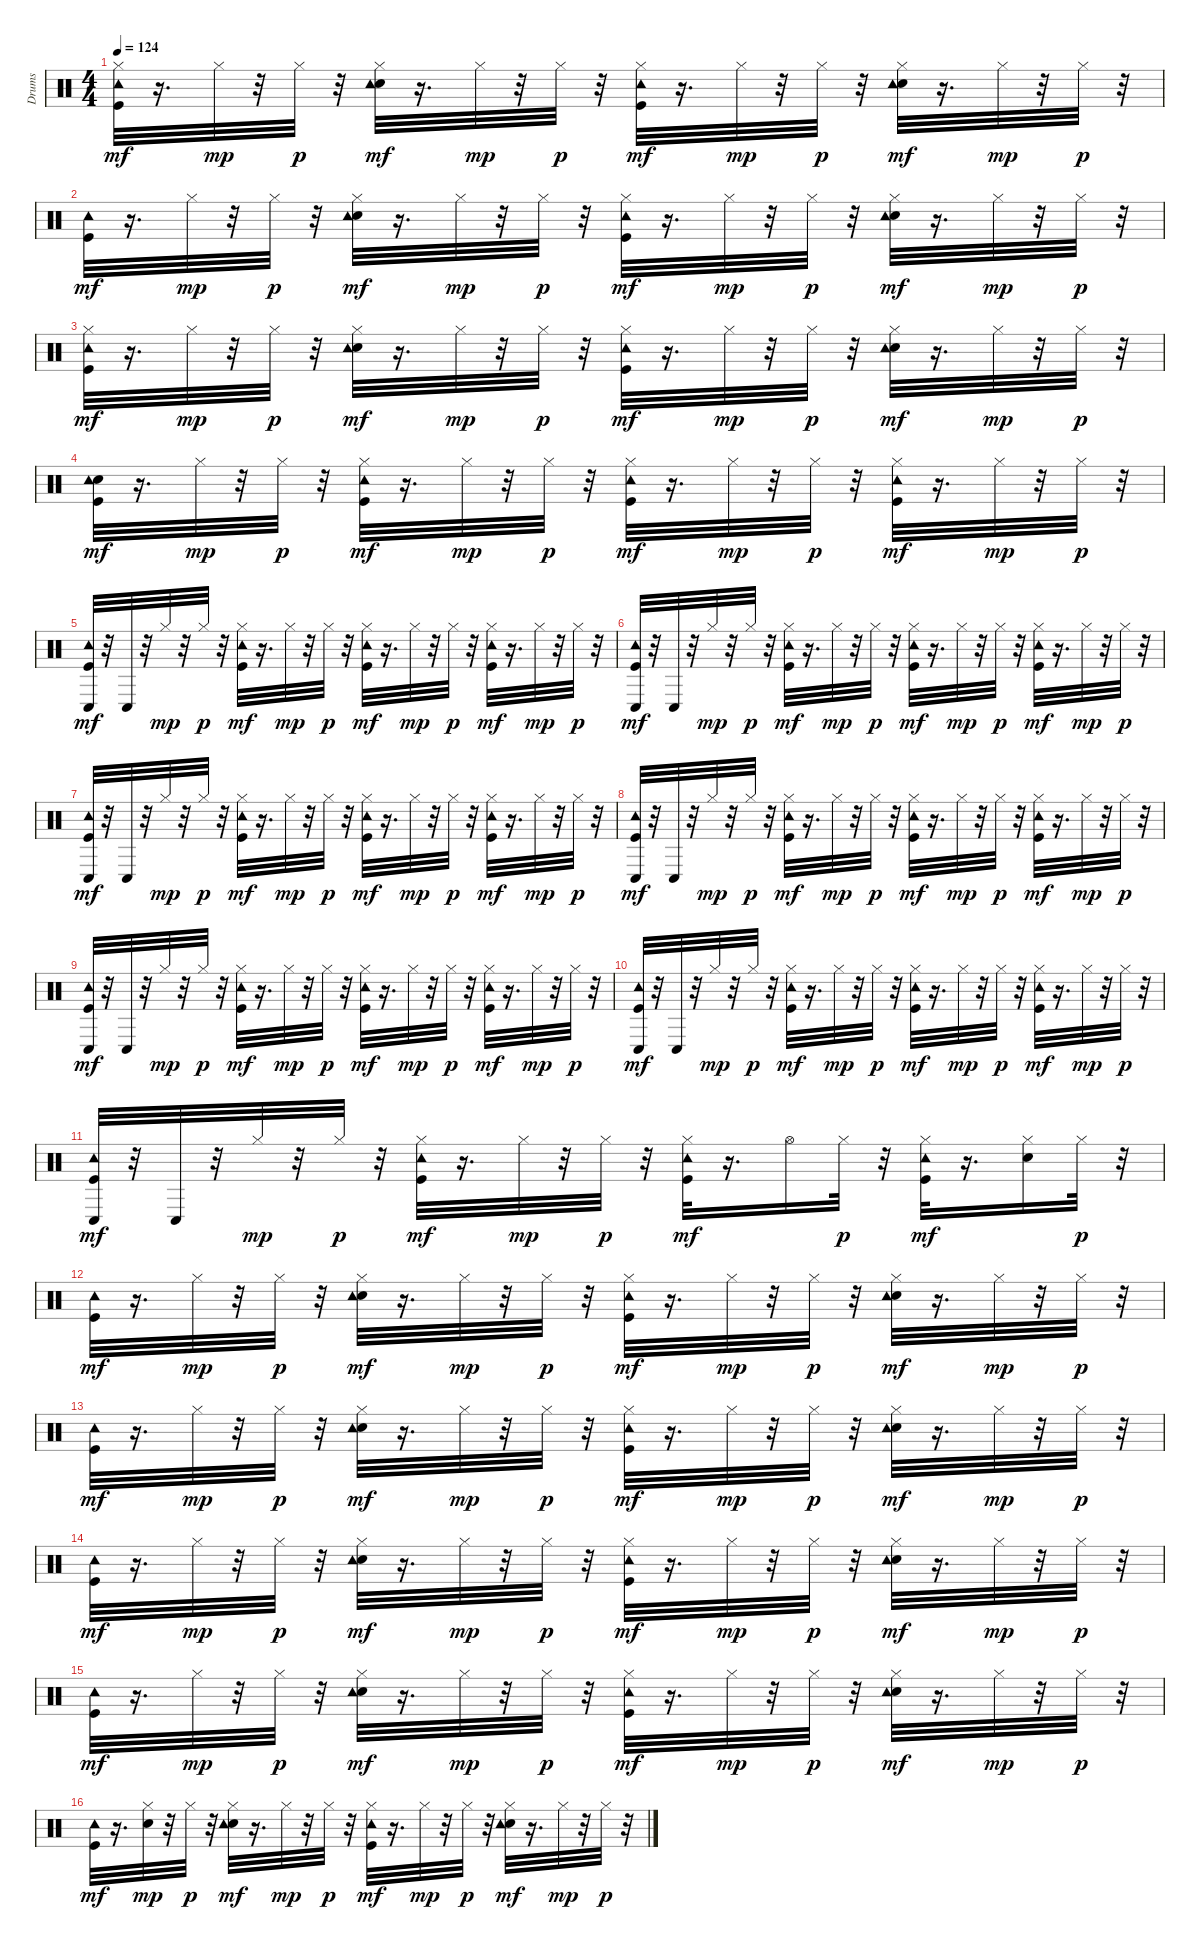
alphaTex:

\track ("Drums" "Drums") {instrument percussion}
\staff {score}
\articulation defaults
\ts (4 4)
\tempo 124
\clef neutral
\ks c
("Hi-Hat (closed)" "Tambourine (hit)" "Kick (hit)").32{dy mf} r.16{d} "Hi-Hat (closed)".32{dy mp} r.32 "Hi-Hat (closed)".32{dy p} r.32 ("Snare (hit) 2" "Tambourine (hit)" "Hi-Hat (closed)").32{dy mf} r.16{d} "Hi-Hat (closed)".32{dy mp} r.32 "Hi-Hat (closed)".32{dy p} r.32 ("Kick (hit)" "Tambourine (hit)" "Hi-Hat (closed)").32{dy mf} r.16{d} "Hi-Hat (closed)".32{dy mp} r.32 "Hi-Hat (closed)".32{dy p} r.32 ("Snare (hit) 2" "Tambourine (hit)" "Hi-Hat (closed)").32{dy mf} r.16{d} "Hi-Hat (closed)".32{dy mp} r.32 "Hi-Hat (closed)".32{dy p} r.32 |
("Tambourine (hit)" "Kick (hit)").32{dy mf} r.16{d} "Hi-Hat (closed)".32{dy mp} r.32 "Hi-Hat (closed)".32{dy p} r.32 ("Hi-Hat (closed)" "Snare (hit) 2" "Tambourine (hit)").32{dy mf} r.16{d} "Hi-Hat (closed)".32{dy mp} r.32 "Hi-Hat (closed)".32{dy p} r.32 ("Kick (hit)" "Tambourine (hit)" "Hi-Hat (closed)").32{dy mf} r.16{d} "Hi-Hat (closed)".32{dy mp} r.32 "Hi-Hat (closed)".32{dy p} r.32 ("Snare (hit) 2" "Tambourine (hit)" "Hi-Hat (closed)").32{dy mf} r.16{d} "Hi-Hat (closed)".32{dy mp} r.32 "Hi-Hat (closed)".32{dy p} r.32 |
("Hi-Hat (closed)" "Tambourine (hit)" "Kick (hit)").32{dy mf} r.16{d} "Hi-Hat (closed)".32{dy mp} r.32 "Hi-Hat (closed)".32{dy p} r.32 ("Snare (hit) 2" "Tambourine (hit)" "Hi-Hat (closed)").32{dy mf} r.16{d} "Hi-Hat (closed)".32{dy mp} r.32 "Hi-Hat (closed)".32{dy p} r.32 ("Kick (hit)" "Tambourine (hit)" "Hi-Hat (closed)").32{dy mf} r.16{d} "Hi-Hat (closed)".32{dy mp} r.32 "Hi-Hat (closed)".32{dy p} r.32 ("Snare (hit) 2" "Tambourine (hit)" "Hi-Hat (closed)").32{dy mf} r.16{d} "Hi-Hat (closed)".32{dy mp} r.32 "Hi-Hat (closed)".32{dy p} r.32 |
("Snare (hit) 2" "Tambourine (hit)" "Kick (hit)").32{dy mf} r.16{d} "Hi-Hat (closed)".32{dy mp} r.32 "Hi-Hat (closed)".32{dy p} r.32 ("Hi-Hat (closed)" "Kick (hit)" "Tambourine (hit)").32{dy mf} r.16{d} "Hi-Hat (closed)".32{dy mp} r.32 "Hi-Hat (closed)".32{dy p} r.32 ("Kick (hit)" "Tambourine (hit)" "Hi-Hat (closed)").32{dy mf} r.16{d} "Hi-Hat (closed)".32{dy mp} r.32 "Hi-Hat (closed)".32{dy p} r.32 ("Kick (hit)" "Tambourine (hit)" "Hi-Hat (closed)").32{dy mf} r.16{d} "Hi-Hat (closed)".32{dy mp} r.32 "Hi-Hat (closed)".32{dy p} r.32 |
("Conga low (hit)" "Kick (hit)" "Tambourine (hit)").32{dy mf} r.32 "Conga low (hit)".32 r.32 "Hi-Hat (closed)".32{dy mp} r.32 "Hi-Hat (closed)".32{dy p} r.32 ("Kick (hit)" "Tambourine (hit)" "Hi-Hat (closed)").32{dy mf} r.16{d} "Hi-Hat (closed)".32{dy mp} r.32 "Hi-Hat (closed)".32{dy p} r.32 ("Kick (hit)" "Tambourine (hit)" "Hi-Hat (closed)").32{dy mf} r.16{d} "Hi-Hat (closed)".32{dy mp} r.32 "Hi-Hat (closed)".32{dy p} r.32 ("Tambourine (hit)" "Kick (hit)" "Hi-Hat (closed)").32{dy mf} r.16{d} "Hi-Hat (closed)".32{dy mp} r.32 "Hi-Hat (closed)".32{dy p} r.32 |
("Conga low (hit)" "Tambourine (hit)" "Kick (hit)").32{dy mf} r.32 "Conga low (hit)".32 r.32 "Hi-Hat (closed)".32{dy mp} r.32 "Hi-Hat (closed)".32{dy p} r.32 ("Hi-Hat (closed)" "Kick (hit)" "Tambourine (hit)").32{dy mf} r.16{d} "Hi-Hat (closed)".32{dy mp} r.32 "Hi-Hat (closed)".32{dy p} r.32 ("Kick (hit)" "Tambourine (hit)" "Hi-Hat (closed)").32{dy mf} r.16{d} "Hi-Hat (closed)".32{dy mp} r.32 "Hi-Hat (closed)".32{dy p} r.32 ("Kick (hit)" "Tambourine (hit)" "Hi-Hat (closed)").32{dy mf} r.16{d} "Hi-Hat (closed)".32{dy mp} r.32 "Hi-Hat (closed)".32{dy p} r.32 |
("Tambourine (hit)" "Conga low (hit)" "Kick (hit)").32{dy mf} r.32 "Conga low (hit)".32 r.32 "Hi-Hat (closed)".32{dy mp} r.32 "Hi-Hat (closed)".32{dy p} r.32 ("Kick (hit)" "Tambourine (hit)" "Hi-Hat (closed)").32{dy mf} r.16{d} "Hi-Hat (closed)".32{dy mp} r.32 "Hi-Hat (closed)".32{dy p} r.32 ("Hi-Hat (closed)" "Kick (hit)" "Tambourine (hit)").32{dy mf} r.16{d} "Hi-Hat (closed)".32{dy mp} r.32 "Hi-Hat (closed)".32{dy p} r.32 ("Kick (hit)" "Tambourine (hit)" "Hi-Hat (closed)").32{dy mf} r.16{d} "Hi-Hat (closed)".32{dy mp} r.32 "Hi-Hat (closed)".32{dy p} r.32 |
("Conga low (hit)" "Tambourine (hit)" "Kick (hit)").32{dy mf} r.32 "Conga low (hit)".32 r.32 "Hi-Hat (closed)".32{dy mp} r.32 "Hi-Hat (closed)".32{dy p} r.32 ("Kick (hit)" "Tambourine (hit)" "Hi-Hat (closed)").32{dy mf} r.16{d} "Hi-Hat (closed)".32{dy mp} r.32 "Hi-Hat (closed)".32{dy p} r.32 ("Kick (hit)" "Tambourine (hit)" "Hi-Hat (closed)").32{dy mf} r.16{d} "Hi-Hat (closed)".32{dy mp} r.32 "Hi-Hat (closed)".32{dy p} r.32 ("Hi-Hat (closed)" "Kick (hit)" "Tambourine (hit)").32{dy mf} r.16{d} "Hi-Hat (closed)".32{dy mp} r.32 "Hi-Hat (closed)".32{dy p} r.32 |
("Conga low (hit)" "Tambourine (hit)" "Kick (hit)").32{dy mf} r.32 "Conga low (hit)".32 r.32 "Hi-Hat (closed)".32{dy mp} r.32 "Hi-Hat (closed)".32{dy p} r.32 ("Kick (hit)" "Tambourine (hit)" "Hi-Hat (closed)").32{dy mf} r.16{d} "Hi-Hat (closed)".32{dy mp} r.32 "Hi-Hat (closed)".32{dy p} r.32 ("Kick (hit)" "Tambourine (hit)" "Hi-Hat (closed)").32{dy mf} r.16{d} "Hi-Hat (closed)".32{dy mp} r.32 "Hi-Hat (closed)".32{dy p} r.32 ("Kick (hit)" "Tambourine (hit)" "Hi-Hat (closed)").32{dy mf} r.16{d} "Hi-Hat (closed)".32{dy mp} r.32 "Hi-Hat (closed)".32{dy p} r.32 |
("Kick (hit)" "Conga low (hit)" "Tambourine (hit)").32{dy mf} r.32 "Conga low (hit)".32 r.32 "Hi-Hat (closed)".32{dy mp} r.32 "Hi-Hat (closed)".32{dy p} r.32 ("Kick (hit)" "Tambourine (hit)" "Hi-Hat (closed)").32{dy mf} r.16{d} "Hi-Hat (closed)".32{dy mp} r.32 "Hi-Hat (closed)".32{dy p} r.32 ("Kick (hit)" "Tambourine (hit)" "Hi-Hat (closed)").32{dy mf} r.16{d} "Hi-Hat (closed)".32{dy mp} r.32 "Hi-Hat (closed)".32{dy p} r.32 ("Kick (hit)" "Tambourine (hit)" "Hi-Hat (closed)").32{dy mf} r.16{d} "Hi-Hat (closed)".32{dy mp} r.32 "Hi-Hat (closed)".32{dy p} r.32 |
("Conga low (hit)" "Tambourine (hit)" "Kick (hit)").32{dy mf} r.32 "Conga low (hit)".32 r.32 "Hi-Hat (closed)".32{dy mp} r.32 "Hi-Hat (closed)".32{dy p} r.32 ("Hi-Hat (closed)" "Kick (hit)" "Tambourine (hit)").32{dy mf} r.16{d} "Hi-Hat (closed)".32{dy mp} r.32 "Hi-Hat (closed)".32{dy p} r.32 ("Kick (hit)" "Tambourine (hit)" "Hi-Hat (closed)").32{dy mf} r.16{d} "Hi-Hat (open)".16 "Hi-Hat (closed)".32{dy p} r.32 ("Hi-Hat (closed)" "Kick (hit)" "Tambourine (hit)").32{dy mf} r.16{d} ("Hi-Hat (closed)" "Snare (hit) 2").16 "Hi-Hat (closed)".32{dy p} r.32 |
("Tambourine (hit)" "Kick (hit)").32{dy mf} r.16{d} "Hi-Hat (closed)".32{dy mp} r.32 "Hi-Hat (closed)".32{dy p} r.32 ("Snare (hit) 2" "Tambourine (hit)" "Hi-Hat (closed)").32{dy mf} r.16{d} "Hi-Hat (closed)".32{dy mp} r.32 "Hi-Hat (closed)".32{dy p} r.32 ("Hi-Hat (closed)" "Kick (hit)" "Tambourine (hit)").32{dy mf} r.16{d} "Hi-Hat (closed)".32{dy mp} r.32 "Hi-Hat (closed)".32{dy p} r.32 ("Snare (hit) 2" "Tambourine (hit)" "Hi-Hat (closed)").32{dy mf} r.16{d} "Hi-Hat (closed)".32{dy mp} r.32 "Hi-Hat (closed)".32{dy p} r.32 |
("Tambourine (hit)" "Kick (hit)").32{dy mf} r.16{d} "Hi-Hat (closed)".32{dy mp} r.32 "Hi-Hat (closed)".32{dy p} r.32 ("Hi-Hat (closed)" "Snare (hit) 2" "Tambourine (hit)").32{dy mf} r.16{d} "Hi-Hat (closed)".32{dy mp} r.32 "Hi-Hat (closed)".32{dy p} r.32 ("Kick (hit)" "Tambourine (hit)" "Hi-Hat (closed)").32{dy mf} r.16{d} "Hi-Hat (closed)".32{dy mp} r.32 "Hi-Hat (closed)".32{dy p} r.32 ("Snare (hit) 2" "Tambourine (hit)" "Hi-Hat (closed)").32{dy mf} r.16{d} "Hi-Hat (closed)".32{dy mp} r.32 "Hi-Hat (closed)".32{dy p} r.32 |
("Tambourine (hit)" "Kick (hit)").32{dy mf} r.16{d} "Hi-Hat (closed)".32{dy mp} r.32 "Hi-Hat (closed)".32{dy p} r.32 ("Snare (hit) 2" "Tambourine (hit)" "Hi-Hat (closed)").32{dy mf} r.16{d} "Hi-Hat (closed)".32{dy mp} r.32 "Hi-Hat (closed)".32{dy p} r.32 ("Kick (hit)" "Tambourine (hit)" "Hi-Hat (closed)").32{dy mf} r.16{d} "Hi-Hat (closed)".32{dy mp} r.32 "Hi-Hat (closed)".32{dy p} r.32 ("Snare (hit) 2" "Tambourine (hit)" "Hi-Hat (closed)").32{dy mf} r.16{d} "Hi-Hat (closed)".32{dy mp} r.32 "Hi-Hat (closed)".32{dy p} r.32 |
("Tambourine (hit)" "Kick (hit)").32{dy mf} r.16{d} "Hi-Hat (closed)".32{dy mp} r.32 "Hi-Hat (closed)".32{dy p} r.32 ("Hi-Hat (closed)" "Snare (hit) 2" "Tambourine (hit)").32{dy mf} r.16{d} "Hi-Hat (closed)".32{dy mp} r.32 "Hi-Hat (closed)".32{dy p} r.32 ("Kick (hit)" "Tambourine (hit)" "Hi-Hat (closed)").32{dy mf} r.16{d} "Hi-Hat (closed)".32{dy mp} r.32 "Hi-Hat (closed)".32{dy p} r.32 ("Snare (hit) 2" "Tambourine (hit)" "Hi-Hat (closed)").32{dy mf} r.16{d} "Hi-Hat (closed)".32{dy mp} r.32 "Hi-Hat (closed)".32{dy p} r.32 |
("Kick (hit)" "Tambourine (hit)").32{dy mf} r.16{d} ("Snare (hit) 2" "Hi-Hat (closed)").32{dy mp} r.32 "Hi-Hat (closed)".32{dy p} r.32 ("Snare (hit) 2" "Tambourine (hit)" "Hi-Hat (closed)").32{dy mf} r.16{d} "Hi-Hat (closed)".32{dy mp} r.32 "Hi-Hat (closed)".32{dy p} r.32 ("Kick (hit)" "Tambourine (hit)" "Hi-Hat (closed)").32{dy mf} r.16{d} "Hi-Hat (closed)".32{dy mp} r.32 "Hi-Hat (closed)".32{dy p} r.32 ("Snare (hit) 2" "Tambourine (hit)" "Hi-Hat (closed)").32{dy mf} r.16{d} "Hi-Hat (closed)".32{dy mp} r.32 "Hi-Hat (closed)".32{dy p} r.32
